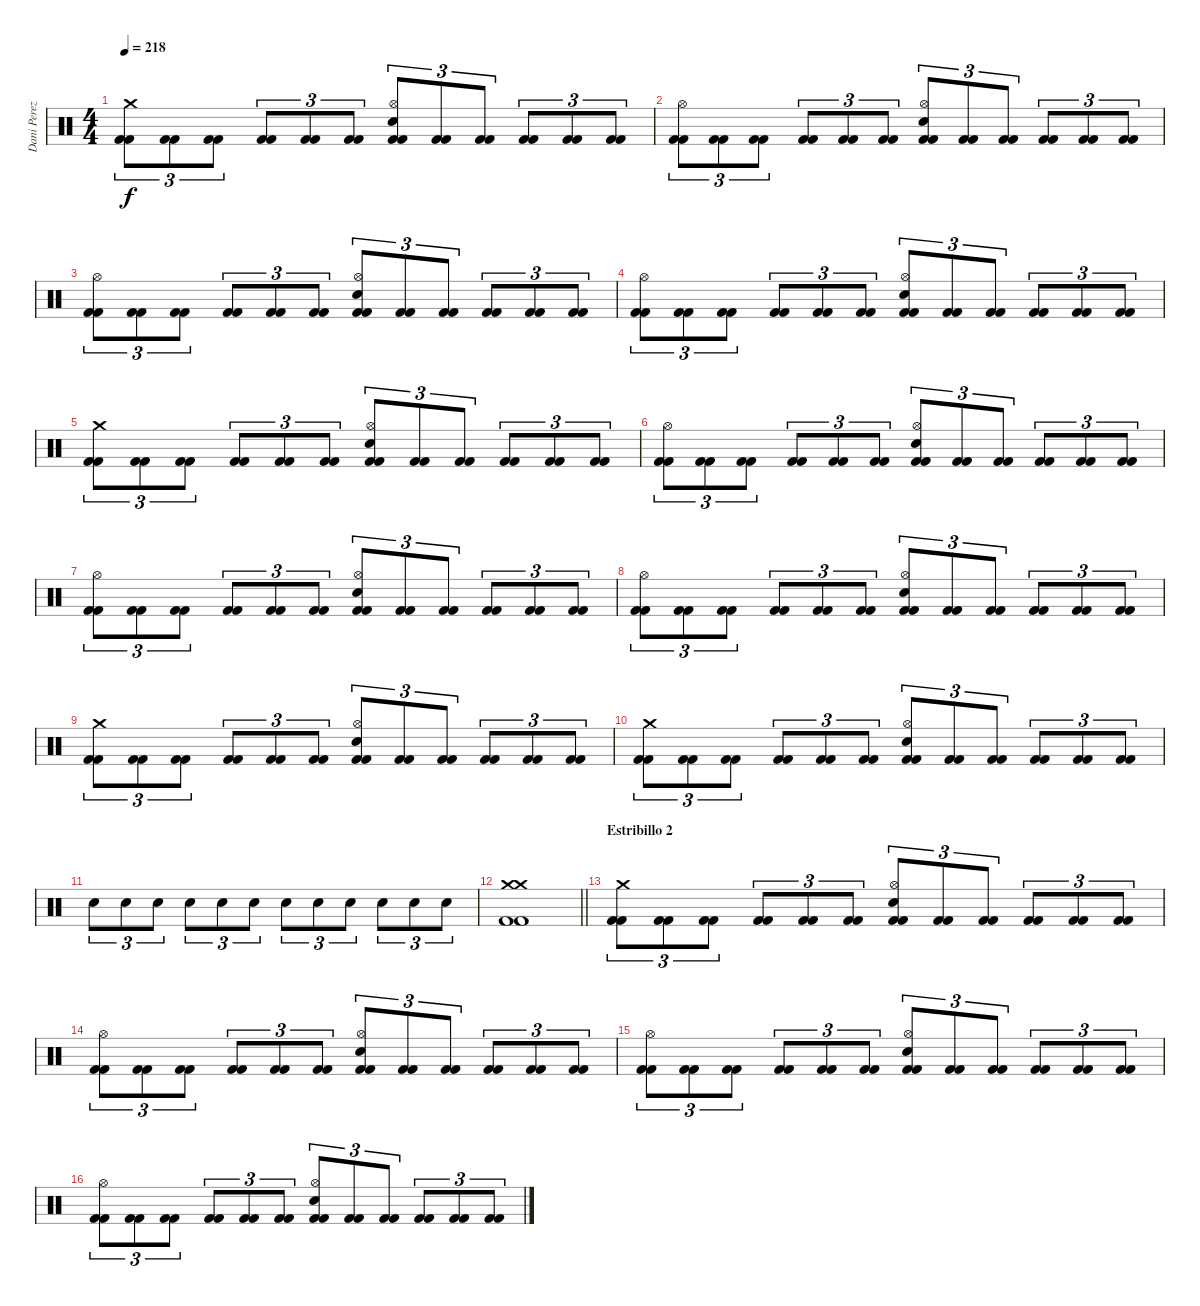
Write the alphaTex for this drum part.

\track ("Dani Perez" "Dani Perez") {instrument percussion}
\staff {score}
\articulation defaults
\ts (4 4)
\tempo 218
\clef neutral
\ks c
("Crash medium (hit)" "Kick (hit) 2" "Kick (hit) 2").8{tu (3 2) dy f} ("Kick (hit) 2" "Kick (hit) 2").8{tu (3 2)} ("Kick (hit) 2" "Kick (hit) 2").8{tu (3 2)} ("Kick (hit) 2" "Kick (hit) 2").8{tu (3 2)} ("Kick (hit) 2" "Kick (hit) 2").8{tu (3 2)} ("Kick (hit) 2" "Kick (hit) 2").8{tu (3 2)} ("Hi-Hat (open)" "Snare (hit) 2" "Kick (hit) 2" "Kick (hit) 2").8{tu (3 2)} ("Kick (hit) 2" "Kick (hit) 2").8{tu (3 2)} ("Kick (hit) 2" "Kick (hit) 2").8{tu (3 2)} ("Kick (hit) 2" "Kick (hit) 2").8{tu (3 2)} ("Kick (hit) 2" "Kick (hit) 2").8{tu (3 2)} ("Kick (hit) 2" "Kick (hit) 2").8{tu (3 2)} |
("Hi-Hat (open)" "Kick (hit) 2" "Kick (hit) 2").8{tu (3 2)} ("Kick (hit) 2" "Kick (hit) 2").8{tu (3 2)} ("Kick (hit) 2" "Kick (hit) 2").8{tu (3 2)} ("Kick (hit) 2" "Kick (hit) 2").8{tu (3 2)} ("Kick (hit) 2" "Kick (hit) 2").8{tu (3 2)} ("Kick (hit) 2" "Kick (hit) 2").8{tu (3 2)} ("Hi-Hat (open)" "Snare (hit) 2" "Kick (hit) 2" "Kick (hit) 2").8{tu (3 2)} ("Kick (hit) 2" "Kick (hit) 2").8{tu (3 2)} ("Kick (hit) 2" "Kick (hit) 2").8{tu (3 2)} ("Kick (hit) 2" "Kick (hit) 2").8{tu (3 2)} ("Kick (hit) 2" "Kick (hit) 2").8{tu (3 2)} ("Kick (hit) 2" "Kick (hit) 2").8{tu (3 2)} |
("Hi-Hat (open)" "Kick (hit) 2" "Kick (hit) 2").8{tu (3 2)} ("Kick (hit) 2" "Kick (hit) 2").8{tu (3 2)} ("Kick (hit) 2" "Kick (hit) 2").8{tu (3 2)} ("Kick (hit) 2" "Kick (hit) 2").8{tu (3 2)} ("Kick (hit) 2" "Kick (hit) 2").8{tu (3 2)} ("Kick (hit) 2" "Kick (hit) 2").8{tu (3 2)} ("Hi-Hat (open)" "Snare (hit) 2" "Kick (hit) 2" "Kick (hit) 2").8{tu (3 2)} ("Kick (hit) 2" "Kick (hit) 2").8{tu (3 2)} ("Kick (hit) 2" "Kick (hit) 2").8{tu (3 2)} ("Kick (hit) 2" "Kick (hit) 2").8{tu (3 2)} ("Kick (hit) 2" "Kick (hit) 2").8{tu (3 2)} ("Kick (hit) 2" "Kick (hit) 2").8{tu (3 2)} |
("Hi-Hat (open)" "Kick (hit) 2" "Kick (hit) 2").8{tu (3 2)} ("Kick (hit) 2" "Kick (hit) 2").8{tu (3 2)} ("Kick (hit) 2" "Kick (hit) 2").8{tu (3 2)} ("Kick (hit) 2" "Kick (hit) 2").8{tu (3 2)} ("Kick (hit) 2" "Kick (hit) 2").8{tu (3 2)} ("Kick (hit) 2" "Kick (hit) 2").8{tu (3 2)} ("Hi-Hat (open)" "Snare (hit) 2" "Kick (hit) 2" "Kick (hit) 2").8{tu (3 2)} ("Kick (hit) 2" "Kick (hit) 2").8{tu (3 2)} ("Kick (hit) 2" "Kick (hit) 2").8{tu (3 2)} ("Kick (hit) 2" "Kick (hit) 2").8{tu (3 2)} ("Kick (hit) 2" "Kick (hit) 2").8{tu (3 2)} ("Kick (hit) 2" "Kick (hit) 2").8{tu (3 2)} |
("Crash medium (hit)" "Kick (hit) 2" "Kick (hit) 2").8{tu (3 2)} ("Kick (hit) 2" "Kick (hit) 2").8{tu (3 2)} ("Kick (hit) 2" "Kick (hit) 2").8{tu (3 2)} ("Kick (hit) 2" "Kick (hit) 2").8{tu (3 2)} ("Kick (hit) 2" "Kick (hit) 2").8{tu (3 2)} ("Kick (hit) 2" "Kick (hit) 2").8{tu (3 2)} ("Hi-Hat (open)" "Snare (hit) 2" "Kick (hit) 2" "Kick (hit) 2").8{tu (3 2)} ("Kick (hit) 2" "Kick (hit) 2").8{tu (3 2)} ("Kick (hit) 2" "Kick (hit) 2").8{tu (3 2)} ("Kick (hit) 2" "Kick (hit) 2").8{tu (3 2)} ("Kick (hit) 2" "Kick (hit) 2").8{tu (3 2)} ("Kick (hit) 2" "Kick (hit) 2").8{tu (3 2)} |
("Hi-Hat (open)" "Kick (hit) 2" "Kick (hit) 2").8{tu (3 2)} ("Kick (hit) 2" "Kick (hit) 2").8{tu (3 2)} ("Kick (hit) 2" "Kick (hit) 2").8{tu (3 2)} ("Kick (hit) 2" "Kick (hit) 2").8{tu (3 2)} ("Kick (hit) 2" "Kick (hit) 2").8{tu (3 2)} ("Kick (hit) 2" "Kick (hit) 2").8{tu (3 2)} ("Hi-Hat (open)" "Snare (hit) 2" "Kick (hit) 2" "Kick (hit) 2").8{tu (3 2)} ("Kick (hit) 2" "Kick (hit) 2").8{tu (3 2)} ("Kick (hit) 2" "Kick (hit) 2").8{tu (3 2)} ("Kick (hit) 2" "Kick (hit) 2").8{tu (3 2)} ("Kick (hit) 2" "Kick (hit) 2").8{tu (3 2)} ("Kick (hit) 2" "Kick (hit) 2").8{tu (3 2)} |
("Hi-Hat (open)" "Kick (hit) 2" "Kick (hit) 2").8{tu (3 2)} ("Kick (hit) 2" "Kick (hit) 2").8{tu (3 2)} ("Kick (hit) 2" "Kick (hit) 2").8{tu (3 2)} ("Kick (hit) 2" "Kick (hit) 2").8{tu (3 2)} ("Kick (hit) 2" "Kick (hit) 2").8{tu (3 2)} ("Kick (hit) 2" "Kick (hit) 2").8{tu (3 2)} ("Hi-Hat (open)" "Snare (hit) 2" "Kick (hit) 2" "Kick (hit) 2").8{tu (3 2)} ("Kick (hit) 2" "Kick (hit) 2").8{tu (3 2)} ("Kick (hit) 2" "Kick (hit) 2").8{tu (3 2)} ("Kick (hit) 2" "Kick (hit) 2").8{tu (3 2)} ("Kick (hit) 2" "Kick (hit) 2").8{tu (3 2)} ("Kick (hit) 2" "Kick (hit) 2").8{tu (3 2)} |
("Hi-Hat (open)" "Kick (hit) 2" "Kick (hit) 2").8{tu (3 2)} ("Kick (hit) 2" "Kick (hit) 2").8{tu (3 2)} ("Kick (hit) 2" "Kick (hit) 2").8{tu (3 2)} ("Kick (hit) 2" "Kick (hit) 2").8{tu (3 2)} ("Kick (hit) 2" "Kick (hit) 2").8{tu (3 2)} ("Kick (hit) 2" "Kick (hit) 2").8{tu (3 2)} ("Hi-Hat (open)" "Snare (hit) 2" "Kick (hit) 2" "Kick (hit) 2").8{tu (3 2)} ("Kick (hit) 2" "Kick (hit) 2").8{tu (3 2)} ("Kick (hit) 2" "Kick (hit) 2").8{tu (3 2)} ("Kick (hit) 2" "Kick (hit) 2").8{tu (3 2)} ("Kick (hit) 2" "Kick (hit) 2").8{tu (3 2)} ("Kick (hit) 2" "Kick (hit) 2").8{tu (3 2)} |
("Crash medium (hit)" "Kick (hit) 2" "Kick (hit) 2").8{tu (3 2)} ("Kick (hit) 2" "Kick (hit) 2").8{tu (3 2)} ("Kick (hit) 2" "Kick (hit) 2").8{tu (3 2)} ("Kick (hit) 2" "Kick (hit) 2").8{tu (3 2)} ("Kick (hit) 2" "Kick (hit) 2").8{tu (3 2)} ("Kick (hit) 2" "Kick (hit) 2").8{tu (3 2)} ("Hi-Hat (open)" "Snare (hit) 2" "Kick (hit) 2" "Kick (hit) 2").8{tu (3 2)} ("Kick (hit) 2" "Kick (hit) 2").8{tu (3 2)} ("Kick (hit) 2" "Kick (hit) 2").8{tu (3 2)} ("Kick (hit) 2" "Kick (hit) 2").8{tu (3 2)} ("Kick (hit) 2" "Kick (hit) 2").8{tu (3 2)} ("Kick (hit) 2" "Kick (hit) 2").8{tu (3 2)} |
("Crash medium (hit)" "Kick (hit) 2" "Kick (hit) 2").8{tu (3 2)} ("Kick (hit) 2" "Kick (hit) 2").8{tu (3 2)} ("Kick (hit) 2" "Kick (hit) 2").8{tu (3 2)} ("Kick (hit) 2" "Kick (hit) 2").8{tu (3 2)} ("Kick (hit) 2" "Kick (hit) 2").8{tu (3 2)} ("Kick (hit) 2" "Kick (hit) 2").8{tu (3 2)} ("Hi-Hat (open)" "Snare (hit) 2" "Kick (hit) 2" "Kick (hit) 2").8{tu (3 2)} ("Kick (hit) 2" "Kick (hit) 2").8{tu (3 2)} ("Kick (hit) 2" "Kick (hit) 2").8{tu (3 2)} ("Kick (hit) 2" "Kick (hit) 2").8{tu (3 2)} ("Kick (hit) 2" "Kick (hit) 2").8{tu (3 2)} ("Kick (hit) 2" "Kick (hit) 2").8{tu (3 2)} |
"Snare (hit) 2".8{tu (3 2)} "Snare (hit) 2".8{tu (3 2)} "Snare (hit) 2".8{tu (3 2)} "Snare (hit) 2".8{tu (3 2)} "Snare (hit) 2".8{tu (3 2)} "Snare (hit) 2".8{tu (3 2)} "Snare (hit) 2".8{tu (3 2)} "Snare (hit) 2".8{tu (3 2)} "Snare (hit) 2".8{tu (3 2)} "Snare (hit) 2".8{tu (3 2)} "Snare (hit) 2".8{tu (3 2)} "Snare (hit) 2".8{tu (3 2)} |
\barLineRight lightlight
("Crash medium (hit)" "Crash medium (hit)" "Kick (hit) 2" "Kick (hit) 2").1 |
\section ("" "Estribillo 2")
("Crash medium (hit)" "Kick (hit) 2" "Kick (hit) 2").8{tu (3 2)} ("Kick (hit) 2" "Kick (hit) 2").8{tu (3 2)} ("Kick (hit) 2" "Kick (hit) 2").8{tu (3 2)} ("Kick (hit) 2" "Kick (hit) 2").8{tu (3 2)} ("Kick (hit) 2" "Kick (hit) 2").8{tu (3 2)} ("Kick (hit) 2" "Kick (hit) 2").8{tu (3 2)} ("Hi-Hat (open)" "Snare (hit) 2" "Kick (hit) 2" "Kick (hit) 2").8{tu (3 2)} ("Kick (hit) 2" "Kick (hit) 2").8{tu (3 2)} ("Kick (hit) 2" "Kick (hit) 2").8{tu (3 2)} ("Kick (hit) 2" "Kick (hit) 2").8{tu (3 2)} ("Kick (hit) 2" "Kick (hit) 2").8{tu (3 2)} ("Kick (hit) 2" "Kick (hit) 2").8{tu (3 2)} |
("Hi-Hat (open)" "Kick (hit) 2" "Kick (hit) 2").8{tu (3 2)} ("Kick (hit) 2" "Kick (hit) 2").8{tu (3 2)} ("Kick (hit) 2" "Kick (hit) 2").8{tu (3 2)} ("Kick (hit) 2" "Kick (hit) 2").8{tu (3 2)} ("Kick (hit) 2" "Kick (hit) 2").8{tu (3 2)} ("Kick (hit) 2" "Kick (hit) 2").8{tu (3 2)} ("Hi-Hat (open)" "Snare (hit) 2" "Kick (hit) 2" "Kick (hit) 2").8{tu (3 2)} ("Kick (hit) 2" "Kick (hit) 2").8{tu (3 2)} ("Kick (hit) 2" "Kick (hit) 2").8{tu (3 2)} ("Kick (hit) 2" "Kick (hit) 2").8{tu (3 2)} ("Kick (hit) 2" "Kick (hit) 2").8{tu (3 2)} ("Kick (hit) 2" "Kick (hit) 2").8{tu (3 2)} |
("Hi-Hat (open)" "Kick (hit) 2" "Kick (hit) 2").8{tu (3 2)} ("Kick (hit) 2" "Kick (hit) 2").8{tu (3 2)} ("Kick (hit) 2" "Kick (hit) 2").8{tu (3 2)} ("Kick (hit) 2" "Kick (hit) 2").8{tu (3 2)} ("Kick (hit) 2" "Kick (hit) 2").8{tu (3 2)} ("Kick (hit) 2" "Kick (hit) 2").8{tu (3 2)} ("Hi-Hat (open)" "Snare (hit) 2" "Kick (hit) 2" "Kick (hit) 2").8{tu (3 2)} ("Kick (hit) 2" "Kick (hit) 2").8{tu (3 2)} ("Kick (hit) 2" "Kick (hit) 2").8{tu (3 2)} ("Kick (hit) 2" "Kick (hit) 2").8{tu (3 2)} ("Kick (hit) 2" "Kick (hit) 2").8{tu (3 2)} ("Kick (hit) 2" "Kick (hit) 2").8{tu (3 2)} |
("Hi-Hat (open)" "Kick (hit) 2" "Kick (hit) 2").8{tu (3 2)} ("Kick (hit) 2" "Kick (hit) 2").8{tu (3 2)} ("Kick (hit) 2" "Kick (hit) 2").8{tu (3 2)} ("Kick (hit) 2" "Kick (hit) 2").8{tu (3 2)} ("Kick (hit) 2" "Kick (hit) 2").8{tu (3 2)} ("Kick (hit) 2" "Kick (hit) 2").8{tu (3 2)} ("Hi-Hat (open)" "Snare (hit) 2" "Kick (hit) 2" "Kick (hit) 2").8{tu (3 2)} ("Kick (hit) 2" "Kick (hit) 2").8{tu (3 2)} ("Kick (hit) 2" "Kick (hit) 2").8{tu (3 2)} ("Kick (hit) 2" "Kick (hit) 2").8{tu (3 2)} ("Kick (hit) 2" "Kick (hit) 2").8{tu (3 2)} ("Kick (hit) 2" "Kick (hit) 2").8{tu (3 2)}
